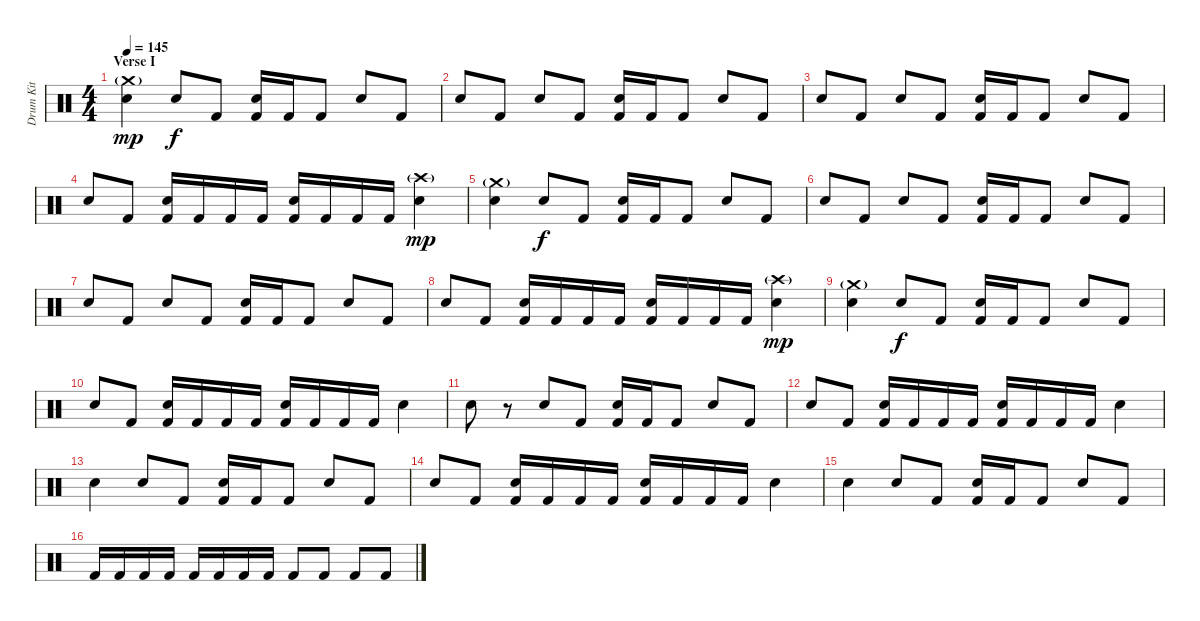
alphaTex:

\track ("Drum Kit" "Drum Kit") {instrument percussion}
\staff {score}
\articulation defaults
\ts (4 4)
\section ("" "Verse I")
\tempo 145
\clef neutral
\ks c
("Crash medium (hit)"{g} "Electric Snare (hit)").4{dy mp} "Electric Snare (hit)".8{dy f} "Kick (hit) 2".8 ("Electric Snare (hit)" "Kick (hit) 2").16 "Kick (hit) 2".16 "Kick (hit) 2".8 "Electric Snare (hit)".8 "Kick (hit) 2".8 |
"Electric Snare (hit)".8 "Kick (hit) 2".8 "Electric Snare (hit)".8 "Kick (hit) 2".8 ("Electric Snare (hit)" "Kick (hit) 2").16 "Kick (hit) 2".16 "Kick (hit) 2".8 "Electric Snare (hit)".8 "Kick (hit) 2".8 |
"Electric Snare (hit)".8 "Kick (hit) 2".8 "Electric Snare (hit)".8 "Kick (hit) 2".8 ("Electric Snare (hit)" "Kick (hit) 2").16 "Kick (hit) 2".16 "Kick (hit) 2".8 "Electric Snare (hit)".8 "Kick (hit) 2".8 |
"Electric Snare (hit)".8 "Kick (hit) 2".8 ("Electric Snare (hit)" "Kick (hit) 2").16 "Kick (hit) 2".16 "Kick (hit) 2".16 "Kick (hit) 2".16 ("Electric Snare (hit)" "Kick (hit) 2").16 "Kick (hit) 2".16 "Kick (hit) 2".16 "Kick (hit) 2".16 ("Crash high (hit)"{g} "Electric Snare (hit)").4{dy mp} |
("Crash medium (hit)"{g} "Electric Snare (hit)").4 "Electric Snare (hit)".8{dy f} "Kick (hit) 2".8 ("Electric Snare (hit)" "Kick (hit) 2").16 "Kick (hit) 2".16 "Kick (hit) 2".8 "Electric Snare (hit)".8 "Kick (hit) 2".8 |
"Electric Snare (hit)".8 "Kick (hit) 2".8 "Electric Snare (hit)".8 "Kick (hit) 2".8 ("Electric Snare (hit)" "Kick (hit) 2").16 "Kick (hit) 2".16 "Kick (hit) 2".8 "Electric Snare (hit)".8 "Kick (hit) 2".8 |
"Electric Snare (hit)".8 "Kick (hit) 2".8 "Electric Snare (hit)".8 "Kick (hit) 2".8 ("Electric Snare (hit)" "Kick (hit) 2").16 "Kick (hit) 2".16 "Kick (hit) 2".8 "Electric Snare (hit)".8 "Kick (hit) 2".8 |
"Electric Snare (hit)".8 "Kick (hit) 2".8 ("Electric Snare (hit)" "Kick (hit) 2").16 "Kick (hit) 2".16 "Kick (hit) 2".16 "Kick (hit) 2".16 ("Electric Snare (hit)" "Kick (hit) 2").16 "Kick (hit) 2".16 "Kick (hit) 2".16 "Kick (hit) 2".16 ("Crash high (hit)"{g} "Electric Snare (hit)").4{dy mp} |
("Crash medium (hit)"{g} "Electric Snare (hit)").4 "Electric Snare (hit)".8{dy f} "Kick (hit) 2".8 ("Electric Snare (hit)" "Kick (hit) 2").16 "Kick (hit) 2".16 "Kick (hit) 2".8 "Electric Snare (hit)".8 "Kick (hit) 2".8 |
"Electric Snare (hit)".8 "Kick (hit) 2".8 ("Electric Snare (hit)" "Kick (hit) 2").16 "Kick (hit) 2".16 "Kick (hit) 2".16 "Kick (hit) 2".16 ("Electric Snare (hit)" "Kick (hit) 2").16 "Kick (hit) 2".16 "Kick (hit) 2".16 "Kick (hit) 2".16 "Electric Snare (hit)".4 |
"Electric Snare (hit)".8 r.8 "Electric Snare (hit)".8 "Kick (hit) 2".8 ("Electric Snare (hit)" "Kick (hit) 2").16 "Kick (hit) 2".16 "Kick (hit) 2".8 "Electric Snare (hit)".8 "Kick (hit) 2".8 |
"Electric Snare (hit)".8 "Kick (hit) 2".8 ("Electric Snare (hit)" "Kick (hit) 2").16 "Kick (hit) 2".16 "Kick (hit) 2".16 "Kick (hit) 2".16 ("Electric Snare (hit)" "Kick (hit) 2").16 "Kick (hit) 2".16 "Kick (hit) 2".16 "Kick (hit) 2".16 "Electric Snare (hit)".4 |
"Electric Snare (hit)".4 "Electric Snare (hit)".8 "Kick (hit) 2".8 ("Electric Snare (hit)" "Kick (hit) 2").16 "Kick (hit) 2".16 "Kick (hit) 2".8 "Electric Snare (hit)".8 "Kick (hit) 2".8 |
"Electric Snare (hit)".8 "Kick (hit) 2".8 ("Electric Snare (hit)" "Kick (hit) 2").16 "Kick (hit) 2".16 "Kick (hit) 2".16 "Kick (hit) 2".16 ("Electric Snare (hit)" "Kick (hit) 2").16 "Kick (hit) 2".16 "Kick (hit) 2".16 "Kick (hit) 2".16 "Electric Snare (hit)".4 |
"Electric Snare (hit)".4 "Electric Snare (hit)".8 "Kick (hit) 2".8 ("Electric Snare (hit)" "Kick (hit) 2").16 "Kick (hit) 2".16 "Kick (hit) 2".8 "Electric Snare (hit)".8 "Kick (hit) 2".8 |
"Kick (hit) 2".16 "Kick (hit) 2".16 "Kick (hit) 2".16 "Kick (hit) 2".16 "Kick (hit) 2".16 "Kick (hit) 2".16 "Kick (hit) 2".16 "Kick (hit) 2".16 "Kick (hit) 2".8 "Kick (hit) 2".8 "Kick (hit) 2".8 "Kick (hit) 2".8
